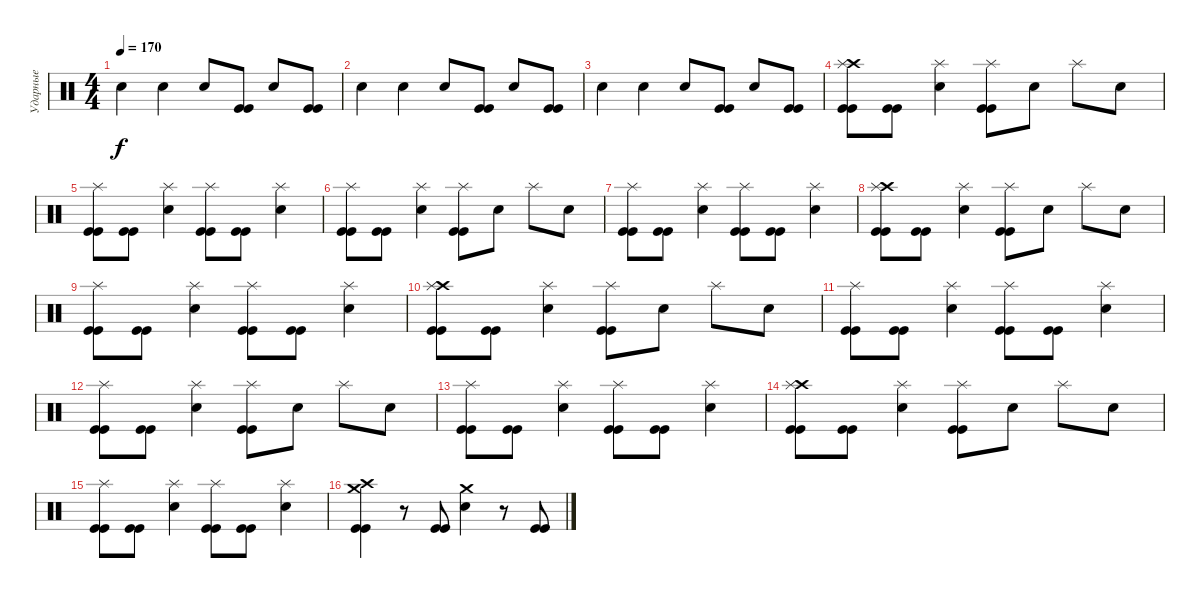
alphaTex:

\track ("Ударные" "Ударные") {instrument percussion}
\staff {score}
\articulation defaults
\ts (4 4)
\tempo 170
\clef neutral
\ks c "Electric Snare (hit)".4{dy f} "Electric Snare (hit)".4 "Electric Snare (hit)".8
("Kick (hit)" "Kick (hit)").8 "Electric Snare (hit)".8 ("Kick (hit)" "Kick (hit)").8 |
"Electric Snare (hit)".4 "Electric Snare (hit)".4 "Electric Snare (hit)".8 ("Kick (hit)" "Kick (hit)").8 "Electric Snare (hit)".8 ("Kick (hit)" "Kick (hit)").8 |
"Electric Snare (hit)".4 "Electric Snare (hit)".4 "Electric Snare (hit)".8 ("Kick (hit)" "Kick (hit)").8 "Electric Snare (hit)".8 ("Kick (hit)" "Kick (hit)").8 |
("Crash high (hit)" "Splash (hit)" "Kick (hit)" "Kick (hit)").8 ("Kick (hit)" "Kick (hit)").8 ("Splash (hit)" "Electric Snare (hit)").4 ("Splash (hit)" "Kick (hit)" "Kick (hit)").8 "Electric Snare (hit)".8 "Splash (hit)".8 "Electric Snare (hit)".8 |
("Splash (hit)" "Kick (hit)" "Kick (hit)").8 ("Kick (hit)" "Kick (hit)").8 ("Splash (hit)" "Electric Snare (hit)").4 ("Splash (hit)" "Kick (hit)" "Kick (hit)").8 ("Kick (hit)" "Kick (hit)").8 ("Splash (hit)" "Electric Snare (hit)").4 |
("Splash (hit)" "Kick (hit)" "Kick (hit)").8 ("Kick (hit)" "Kick (hit)").8 ("Splash (hit)" "Electric Snare (hit)").4 ("Splash (hit)" "Kick (hit)" "Kick (hit)").8 "Electric Snare (hit)".8 "Splash (hit)".8 "Electric Snare (hit)".8 |
("Splash (hit)" "Kick (hit)" "Kick (hit)").8 ("Kick (hit)" "Kick (hit)").8 ("Splash (hit)" "Electric Snare (hit)").4 ("Splash (hit)" "Kick (hit)" "Kick (hit)").8 ("Kick (hit)" "Kick (hit)").8 ("Splash (hit)" "Electric Snare (hit)").4 |
("Crash high (hit)" "Splash (hit)" "Kick (hit)" "Kick (hit)").8 ("Kick (hit)" "Kick (hit)").8 ("Splash (hit)" "Electric Snare (hit)").4 ("Splash (hit)" "Kick (hit)" "Kick (hit)").8 "Electric Snare (hit)".8 "Splash (hit)".8 "Electric Snare (hit)".8 |
("Splash (hit)" "Kick (hit)" "Kick (hit)").8 ("Kick (hit)" "Kick (hit)").8 ("Splash (hit)" "Electric Snare (hit)").4 ("Splash (hit)" "Kick (hit)" "Kick (hit)").8 ("Kick (hit)" "Kick (hit)").8 ("Splash (hit)" "Electric Snare (hit)").4 |
("Crash high (hit)" "Splash (hit)" "Kick (hit)" "Kick (hit)").8 ("Kick (hit)" "Kick (hit)").8 ("Splash (hit)" "Electric Snare (hit)").4 ("Splash (hit)" "Kick (hit)" "Kick (hit)").8 "Electric Snare (hit)".8 "Splash (hit)".8 "Electric Snare (hit)".8 |
("Splash (hit)" "Kick (hit)" "Kick (hit)").8 ("Kick (hit)" "Kick (hit)").8 ("Splash (hit)" "Electric Snare (hit)").4 ("Splash (hit)" "Kick (hit)" "Kick (hit)").8 ("Kick (hit)" "Kick (hit)").8 ("Splash (hit)" "Electric Snare (hit)").4 |
("Splash (hit)" "Kick (hit)" "Kick (hit)").8 ("Kick (hit)" "Kick (hit)").8 ("Splash (hit)" "Electric Snare (hit)").4 ("Splash (hit)" "Kick (hit)" "Kick (hit)").8 "Electric Snare (hit)".8 "Splash (hit)".8 "Electric Snare (hit)".8 |
("Splash (hit)" "Kick (hit)" "Kick (hit)").8 ("Kick (hit)" "Kick (hit)").8 ("Splash (hit)" "Electric Snare (hit)").4 ("Splash (hit)" "Kick (hit)" "Kick (hit)").8 ("Kick (hit)" "Kick (hit)").8 ("Splash (hit)" "Electric Snare (hit)").4 |
("Crash high (hit)" "Splash (hit)" "Kick (hit)" "Kick (hit)").8 ("Kick (hit)" "Kick (hit)").8 ("Splash (hit)" "Electric Snare (hit)").4 ("Splash (hit)" "Kick (hit)" "Kick (hit)").8 "Electric Snare (hit)".8 "Splash (hit)".8 "Electric Snare (hit)".8 |
("Splash (hit)" "Kick (hit)" "Kick (hit)").8 ("Kick (hit)" "Kick (hit)").8 ("Splash (hit)" "Electric Snare (hit)").4 ("Splash (hit)" "Kick (hit)" "Kick (hit)").8 ("Kick (hit)" "Kick (hit)").8 ("Splash (hit)" "Electric Snare (hit)").4 |
("Crash high (hit)" "Crash medium (hit)" "Kick (hit)" "Kick (hit)").4 r.8 ("Kick (hit)" "Kick (hit)").8 ("Crash medium (hit)" "Electric Snare (hit)").4 r.8 ("Kick (hit)" "Kick (hit)").8
